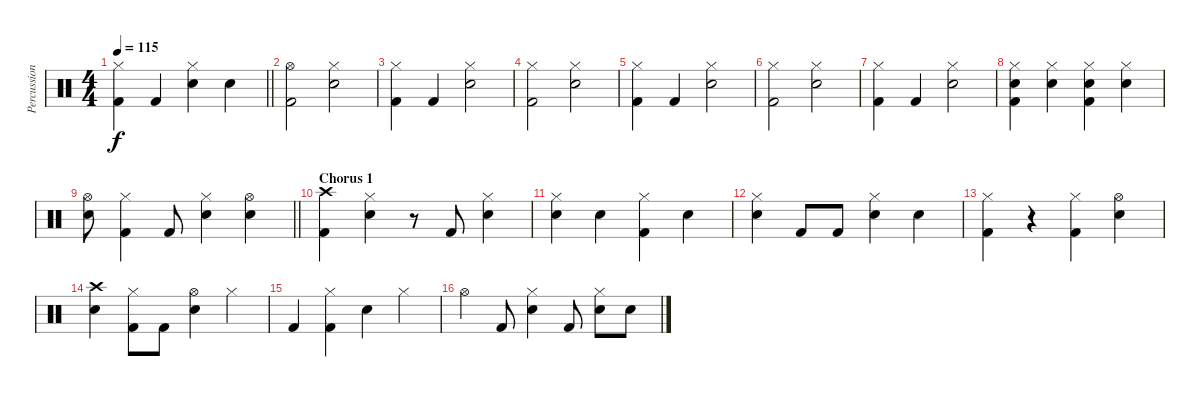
\track ("Percussion" "Percussion") {instrument percussion}
\staff {score}
\articulation defaults
\ts (4 4)
\tempo 115
\clef neutral
\barLineRight lightlight
\ks c
("Hi-Hat (closed)" "Kick (hit) 2").4{dy f} "Kick (hit) 2".4 ("Hi-Hat (closed)" "Snare (hit) 2").4 "Snare (hit) 2".4 |
("Hi-Hat (open)" "Kick (hit) 2").2 ("Hi-Hat (closed)" "Snare (hit) 2").2 |
("Hi-Hat (closed)" "Kick (hit) 2").4 "Kick (hit) 2".4 ("Hi-Hat (closed)" "Snare (hit) 2").2 |
("Hi-Hat (closed)" "Kick (hit) 2").2 ("Hi-Hat (closed)" "Snare (hit) 2").2 |
("Hi-Hat (closed)" "Kick (hit) 2").4 "Kick (hit) 2".4 ("Hi-Hat (closed)" "Snare (hit) 2").2 |
("Hi-Hat (closed)" "Kick (hit) 2").2 ("Hi-Hat (closed)" "Snare (hit) 2").2 |
("Hi-Hat (closed)" "Kick (hit) 2").4 "Kick (hit) 2".4 ("Hi-Hat (closed)" "Snare (hit) 2").2 |
("Hi-Hat (closed)" "Snare (hit) 2" "Kick (hit) 2").4 ("Hi-Hat (closed)" "Snare (hit) 2").4 ("Hi-Hat (closed)" "Snare (hit) 2" "Kick (hit) 2").4 ("Hi-Hat (closed)" "Snare (hit) 2").4 |
\barLineRight lightlight
("Hi-Hat (open)" "Snare (hit) 2").8 ("Hi-Hat (closed)" "Kick (hit) 2").4 "Kick (hit) 2".8 ("Hi-Hat (closed)" "Snare (hit) 2").4 ("Hi-Hat (open)" "Snare (hit) 2").4 |
\section ("" "Chorus 1")
("Crash high (hit)" "Kick (hit) 2").4 ("Hi-Hat (closed)" "Snare (hit) 2").4 r.8 "Kick (hit) 2".8 ("Hi-Hat (closed)" "Snare (hit) 2").4 |
("Hi-Hat (closed)" "Snare (hit) 2").4 "Snare (hit) 2".4 ("Hi-Hat (closed)" "Kick (hit) 2").4 "Snare (hit) 2".4 |
("Hi-Hat (closed)" "Snare (hit) 2").4 "Kick (hit) 2".8 "Kick (hit) 2".8 ("Hi-Hat (closed)" "Snare (hit) 2").4 "Snare (hit) 2".4 |
("Hi-Hat (closed)" "Kick (hit) 2").4 r.4 ("Hi-Hat (closed)" "Kick (hit) 2").4 ("Hi-Hat (open)" "Snare (hit) 2").4 |
("Crash high (hit)" "Snare (hit) 2").4 ("Hi-Hat (closed)" "Kick (hit) 2").8 "Kick (hit) 2".8 ("Hi-Hat (open)" "Snare (hit) 2").4 "Hi-Hat (closed)".4 |
"Kick (hit) 2".4 ("Hi-Hat (closed)" "Kick (hit) 2").4 "Snare (hit) 2".4 "Hi-Hat (closed)".4 |
"Hi-Hat (open)".4 "Kick (hit) 2".8 ("Hi-Hat (closed)" "Snare (hit) 2").4 "Kick (hit) 2".8 ("Hi-Hat (closed)" "Snare (hit) 2").8 "Snare (hit) 2".8
